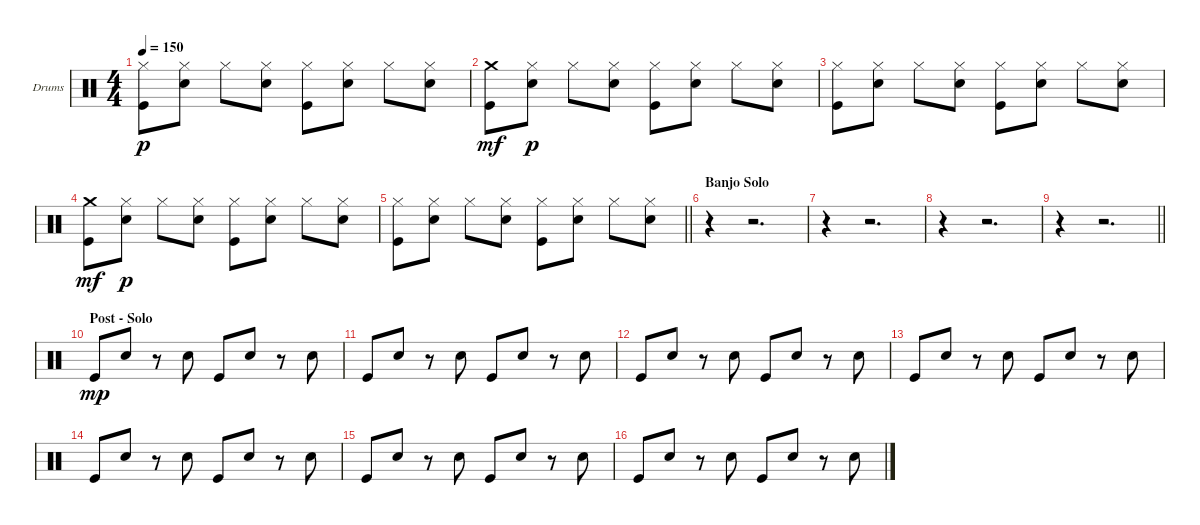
\bracketExtendMode groupsimilarinstruments
\firstSystemTrackNameOrientation horizontal
\otherSystemsTrackNameOrientation horizontal
\track ("Drumkit" "Drums") {instrument percussion}
\staff {score}
\articulation defaults
\ts (4 4)
\tempo 150
\clef neutral
\ks c
("Hi-Hat (closed)" "Kick (hit)").8{dy p} ("Hi-Hat (closed)" "Snare (hit) 2").8 "Hi-Hat (closed)".8 ("Hi-Hat (closed)" "Snare (hit) 2").8 ("Hi-Hat (closed)" "Kick (hit)").8 ("Hi-Hat (closed)" "Snare (hit) 2").8 "Hi-Hat (closed)".8 ("Hi-Hat (closed)" "Snare (hit) 2").8 |
("Crash medium (hit)" "Kick (hit)").8{dy mf} ("Hi-Hat (closed)" "Snare (hit) 2").8{dy p} "Hi-Hat (closed)".8 ("Hi-Hat (closed)" "Snare (hit) 2").8 ("Hi-Hat (closed)" "Kick (hit)").8 ("Hi-Hat (closed)" "Snare (hit) 2").8 "Hi-Hat (closed)".8 ("Hi-Hat (closed)" "Snare (hit) 2").8 |
("Hi-Hat (closed)" "Kick (hit)").8 ("Hi-Hat (closed)" "Snare (hit) 2").8 "Hi-Hat (closed)".8 ("Hi-Hat (closed)" "Snare (hit) 2").8 ("Hi-Hat (closed)" "Kick (hit)").8 ("Hi-Hat (closed)" "Snare (hit) 2").8 "Hi-Hat (closed)".8 ("Hi-Hat (closed)" "Snare (hit) 2").8 |
("Crash medium (hit)" "Kick (hit)").8{dy mf} ("Hi-Hat (closed)" "Snare (hit) 2").8{dy p} "Hi-Hat (closed)".8 ("Hi-Hat (closed)" "Snare (hit) 2").8 ("Hi-Hat (closed)" "Kick (hit)").8 ("Hi-Hat (closed)" "Snare (hit) 2").8 "Hi-Hat (closed)".8 ("Hi-Hat (closed)" "Snare (hit) 2").8 |
\barLineRight lightlight
("Hi-Hat (closed)" "Kick (hit)").8 ("Hi-Hat (closed)" "Snare (hit) 2").8 "Hi-Hat (closed)".8 ("Hi-Hat (closed)" "Snare (hit) 2").8 ("Hi-Hat (closed)" "Kick (hit)").8 ("Hi-Hat (closed)" "Snare (hit) 2").8 "Hi-Hat (closed)".8 ("Hi-Hat (closed)" "Snare (hit) 2").8 |
\section ("" "Banjo Solo")
r.4 r.2{d} |
r.4 r.2{d} |
r.4 r.2{d} |
\barLineRight lightlight
r.4 r.2{d} |
\section ("" "Post - Solo")
"Kick (hit)".8{dy mp} "Snare (hit) 2".8 r.8 "Snare (hit) 2".8 "Kick (hit)".8 "Snare (hit) 2".8 r.8 "Snare (hit) 2".8 |
"Kick (hit)".8 "Snare (hit) 2".8 r.8 "Snare (hit) 2".8 "Kick (hit)".8 "Snare (hit) 2".8 r.8 "Snare (hit) 2".8 |
"Kick (hit)".8 "Snare (hit) 2".8 r.8 "Snare (hit) 2".8 "Kick (hit)".8 "Snare (hit) 2".8 r.8 "Snare (hit) 2".8 |
"Kick (hit)".8 "Snare (hit) 2".8 r.8 "Snare (hit) 2".8 "Kick (hit)".8 "Snare (hit) 2".8 r.8 "Snare (hit) 2".8 |
"Kick (hit)".8 "Snare (hit) 2".8 r.8 "Snare (hit) 2".8 "Kick (hit)".8 "Snare (hit) 2".8 r.8 "Snare (hit) 2".8 |
"Kick (hit)".8 "Snare (hit) 2".8 r.8 "Snare (hit) 2".8 "Kick (hit)".8 "Snare (hit) 2".8 r.8 "Snare (hit) 2".8 |
"Kick (hit)".8 "Snare (hit) 2".8 r.8 "Snare (hit) 2".8 "Kick (hit)".8 "Snare (hit) 2".8 r.8 "Snare (hit) 2".8
